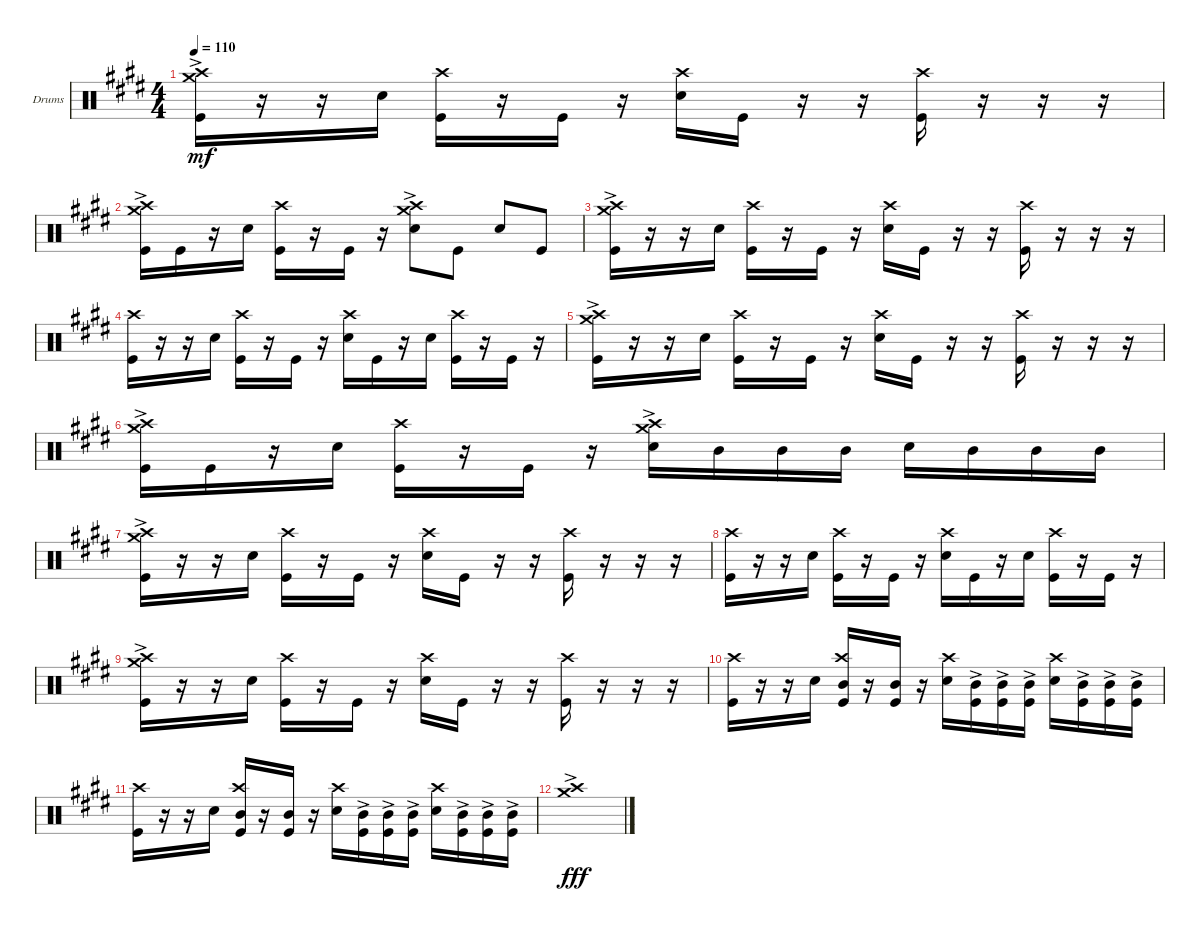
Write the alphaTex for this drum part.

\defaultSystemsLayout 4
\bracketExtendMode groupsimilarinstruments
\firstSystemTrackNameOrientation horizontal
\otherSystemsTrackNameOrientation horizontal
\track ("Drumkit" "Drums") {instrument percussion}
\staff {score}
\articulation defaults
\ts (4 4)
\tempo 110
\clef neutral
\ks c#minor
("Kick (hit)" "Crash high (hit)"{ac} "Crash medium (hit)"{ac}).16{dy mf} r.16 r.16 "Snare (hit) 2".16 ("Kick (hit)" "Crash high (hit)").16 r.16 "Kick (hit)".16 r.16 ("Snare (hit) 2" "Crash high (hit)").16 "Kick (hit)".16 r.16 r.16 ("Kick (hit)" "Crash high (hit)").16 r.16 r.16 r.16 |
("Kick (hit)" "Crash medium (hit)"{ac} "Crash high (hit)"{ac}).16 "Kick (hit)".16 r.16 "Snare (hit) 2".16 ("Kick (hit)" "Crash high (hit)").16 r.16 "Kick (hit)".16 r.16 ("Snare (hit) 2" "Crash medium (hit)"{ac} "Crash high (hit)"{ac}).8 "Kick (hit)".8 "Snare (hit) 2".8 "Kick (hit)".8 |
("Kick (hit)" "Crash high (hit)"{ac} "Crash medium (hit)"{ac}).16 r.16 r.16 "Snare (hit) 2".16 ("Kick (hit)" "Crash high (hit)").16 r.16 "Kick (hit)".16 r.16 ("Snare (hit) 2" "Crash high (hit)").16 "Kick (hit)".16 r.16 r.16 ("Kick (hit)" "Crash high (hit)").16 r.16 r.16 r.16 |
("Kick (hit)" "Crash high (hit)").16 r.16 r.16 "Snare (hit) 2".16 ("Kick (hit)" "Crash high (hit)").16 r.16 "Kick (hit)".16 r.16 ("Snare (hit) 2" "Crash high (hit)").16 "Kick (hit)".16 r.16 "Snare (hit) 2".16 ("Kick (hit)" "Crash high (hit)").16 r.16 "Kick (hit)".16 r.16 |
("Kick (hit)" "Crash high (hit)"{ac} "Crash medium (hit)"{ac}).16 r.16 r.16 "Snare (hit) 2".16 ("Kick (hit)" "Crash high (hit)").16 r.16 "Kick (hit)".16 r.16 ("Snare (hit) 2" "Crash high (hit)").16 "Kick (hit)".16 r.16 r.16 ("Kick (hit)" "Crash high (hit)").16 r.16 r.16 r.16 |
("Kick (hit)" "Crash medium (hit)"{ac} "Crash high (hit)"{ac}).16 "Kick (hit)".16 r.16 "Snare (hit) 2".16 ("Kick (hit)" "Crash high (hit)").16 r.16 "Kick (hit)".16 r.16 ("Snare (hit) 2" "Crash medium (hit)"{ac} "Crash high (hit)"{ac}).16 "Mid Tom (hit)".16 "Mid Tom (hit)".16 "Mid Tom (hit)".16 "Snare (hit) 2".16 "Mid Tom (hit)".16 "Mid Tom (hit)".16 "Mid Tom (hit)".16 |
("Kick (hit)" "Crash high (hit)"{ac} "Crash medium (hit)"{ac}).16 r.16 r.16 "Snare (hit) 2".16 ("Kick (hit)" "Crash high (hit)").16 r.16 "Kick (hit)".16 r.16 ("Snare (hit) 2" "Crash high (hit)").16 "Kick (hit)".16 r.16 r.16 ("Kick (hit)" "Crash high (hit)").16 r.16 r.16 r.16 |
("Kick (hit)" "Crash high (hit)").16 r.16 r.16 "Snare (hit) 2".16 ("Kick (hit)" "Crash high (hit)").16 r.16 "Kick (hit)".16 r.16 ("Snare (hit) 2" "Crash high (hit)").16 "Kick (hit)".16 r.16 "Snare (hit) 2".16 ("Kick (hit)" "Crash high (hit)").16 r.16 "Kick (hit)".16 r.16 |
("Kick (hit)" "Crash high (hit)"{ac} "Crash medium (hit)"{ac}).16 r.16 r.16 "Snare (hit) 2".16 ("Kick (hit)" "Crash high (hit)").16 r.16 "Kick (hit)".16 r.16 ("Snare (hit) 2" "Crash high (hit)").16 "Kick (hit)".16 r.16 r.16 ("Kick (hit)" "Crash high (hit)").16 r.16 r.16 r.16 |
("Kick (hit)" "Crash high (hit)").16 r.16 r.16 "Snare (hit) 2".16 ("Kick (hit)" "Mid Tom (hit)" "Crash high (hit)").16 r.16 ("Kick (hit)" "Mid Tom (hit)").16 r.16 ("Snare (hit) 2" "Crash high (hit)").16 ("Mid Tom (hit)"{ac} "Kick (hit)"{ac}).16 ("Mid Tom (hit)"{ac} "Kick (hit)"{ac}).16 ("Mid Tom (hit)"{ac} "Kick (hit)"{ac}).16 ("Snare (hit) 2" "Crash high (hit)").16 ("Mid Tom (hit)"{ac} "Kick (hit)"{ac}).16 ("Mid Tom (hit)"{ac} "Kick (hit)"{ac}).16 ("Mid Tom (hit)"{ac} "Kick (hit)"{ac}).16 |
("Kick (hit)" "Crash high (hit)").16 r.16 r.16 "Snare (hit) 2".16 ("Kick (hit)" "Mid Tom (hit)" "Crash high (hit)").16 r.16 ("Kick (hit)" "Mid Tom (hit)").16 r.16 ("Snare (hit) 2" "Crash high (hit)").16 ("Mid Tom (hit)"{ac} "Kick (hit)"{ac}).16 ("Mid Tom (hit)"{ac} "Kick (hit)"{ac}).16 ("Mid Tom (hit)"{ac} "Kick (hit)"{ac}).16 ("Snare (hit) 2" "Crash high (hit)").16 ("Mid Tom (hit)"{ac} "Kick (hit)"{ac}).16 ("Mid Tom (hit)"{ac} "Kick (hit)"{ac}).16 ("Mid Tom (hit)"{ac} "Kick (hit)"{ac}).16 |
("Crash high (hit)"{ac} "Crash medium (hit)"{ac}).1{dy fff}
